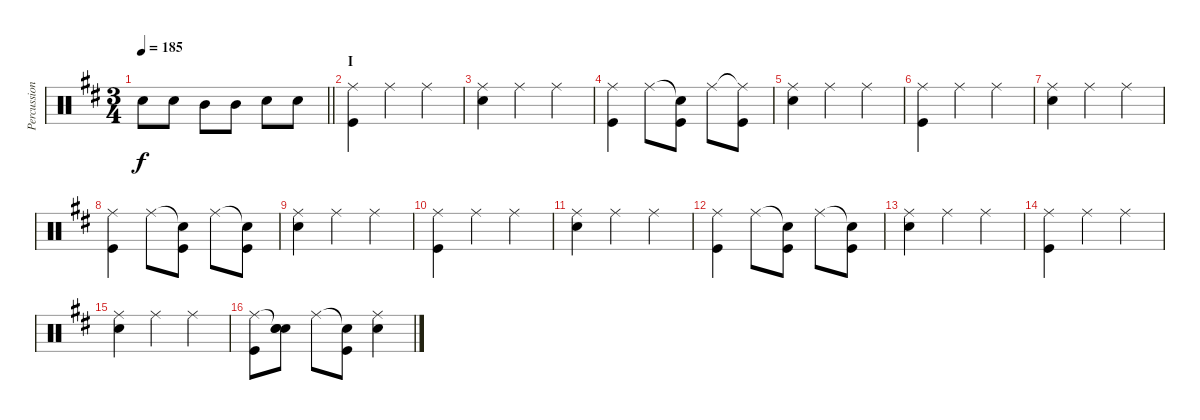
\track ("Percussion" "Percussion") {instrument percussion}
\staff {score}
\articulation defaults
\ts (3 4)
\tempo 185
\clef neutral
\barLineRight lightlight
\ks d "Snare (hit) 2".8{dy f} "Snare (hit) 2".8 "Mid Tom (hit)".8 "Mid Tom (hit)".8 "Snare (hit) 2".8 "Snare (hit) 2".8
|
\section ("" "I")
("Ride (middle)" "Kick (hit)").4 "Ride (middle)".4 "Ride (middle)".4 |
("Ride (middle)" "Snare (hit) 2").4 "Ride (middle)".4 "Ride (middle)".4 |
("Ride (middle)" "Kick (hit)").4 "Ride (middle)".8 ("Snare (hit)"{t} "Kick (hit)").8 "Ride (middle)".8 ("Ride (middle)"{t} "Kick (hit)").8 |
("Ride (middle)" "Snare (hit) 2").4 "Ride (middle)".4 "Ride (middle)".4 |
("Ride (middle)" "Kick (hit)").4 "Ride (middle)".4 "Ride (middle)".4 |
("Ride (middle)" "Snare (hit) 2").4 "Ride (middle)".4 "Ride (middle)".4 |
("Ride (middle)" "Kick (hit)").4 "Ride (middle)".8 ("Snare (hit)"{t} "Kick (hit)").8 "Ride (middle)".8 ("Snare (hit)"{t} "Kick (hit)").8 |
("Ride (middle)" "Snare (hit) 2").4 "Ride (middle)".4 "Ride (middle)".4 |
("Ride (middle)" "Kick (hit)").4 "Ride (middle)".4 "Ride (middle)".4 |
("Ride (middle)" "Snare (hit) 2").4 "Ride (middle)".4 "Ride (middle)".4 |
("Ride (middle)" "Kick (hit)").4 "Ride (middle)".8 ("Snare (hit)"{t} "Kick (hit)").8 "Ride (middle)".8 ("Snare (hit)"{t} "Kick (hit)").8 |
("Ride (middle)" "Snare (hit) 2").4 "Ride (middle)".4 "Ride (middle)".4 |
("Ride (middle)" "Kick (hit)").4 "Ride (middle)".4 "Ride (middle)".4 |
("Ride (middle)" "Snare (hit) 2").4 "Ride (middle)".4 "Ride (middle)".4 |
("Ride (middle)" "Kick (hit)").8 ("Snare (hit)"{t} "Snare (hit) 2" "Snare (hit)").8 "Ride (middle)".8 ("Snare (hit)"{t} "Kick (hit)").8 ("Ride (middle)" "Snare (hit) 2").4
